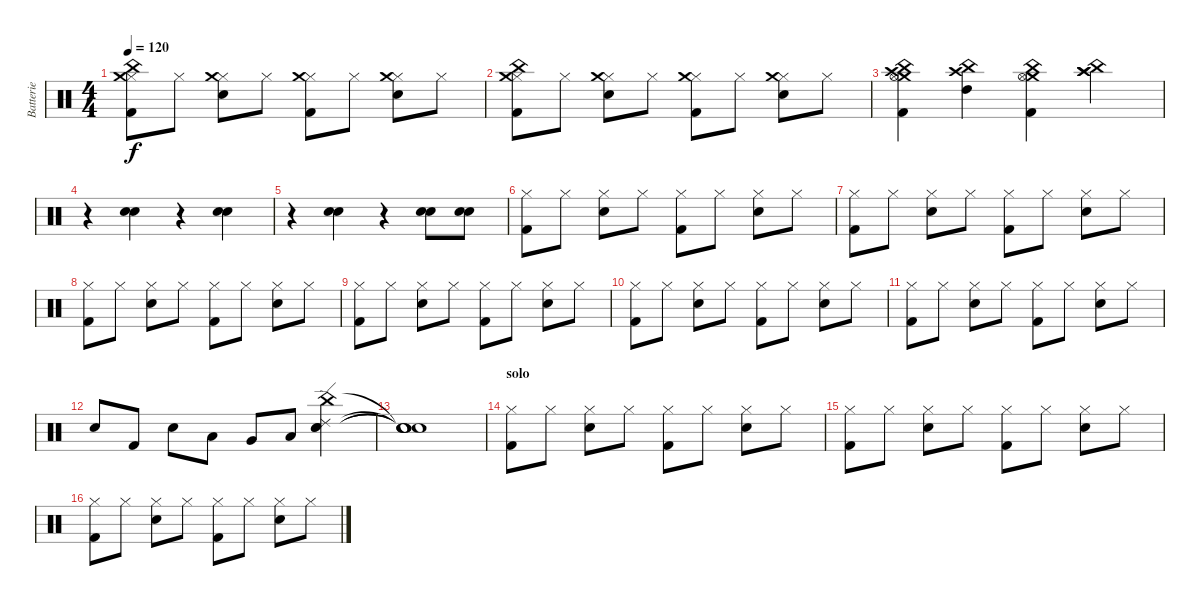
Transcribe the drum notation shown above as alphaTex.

\track ("Batterie" "Batterie") {instrument percussion}
\staff {score}
\articulation defaults
\ts (4 4)
\tempo 120
\clef neutral
\ks c
("China (hit)" "Hi-Hat (closed)" "Crash medium (hit)" "Kick (hit) 2").8{dy f} "Hi-Hat (closed)".8 ("Hi-Hat (closed)" "Crash medium (hit)" "Electric Snare (hit)").8 "Hi-Hat (closed)".8 ("Hi-Hat (closed)" "Crash medium (hit)" "Kick (hit) 2").8 "Hi-Hat (closed)".8 ("Hi-Hat (closed)" "Crash medium (hit)" "Electric Snare (hit)").8 "Hi-Hat (closed)".8 |
("China (hit)" "Hi-Hat (closed)" "Crash medium (hit)" "Kick (hit) 2").8 "Hi-Hat (closed)".8 ("Hi-Hat (closed)" "Crash medium (hit)" "Electric Snare (hit)").8 "Hi-Hat (closed)".8 ("Hi-Hat (closed)" "Crash medium (hit)" "Kick (hit) 2").8 "Hi-Hat (closed)".8 ("Hi-Hat (closed)" "Crash medium (hit)" "Electric Snare (hit)").8 "Hi-Hat (closed)".8 |
("China (hit)" "Crash medium (hit)" "Hi-Hat (open)" "Crash high (hit)" "Kick (hit) 2").4 ("China (hit)" "Crash high (hit)" "High Tom (hit)").4 ("China (hit)" "Crash medium (hit)" "Hi-Hat (open)" "Kick (hit) 2").4 ("China (hit)" "Crash high (hit)" "Crash high (hit)").4 |
r.4 ("Snare (hit) 2" "Electric Snare (hit)").4 r.4 ("Snare (hit) 2" "Electric Snare (hit)").4 |
r.4 ("Snare (hit) 2" "Electric Snare (hit)").4 r.4 ("Snare (hit) 2" "Electric Snare (hit)").8 ("Snare (hit) 2" "Electric Snare (hit)").8 |
("Hi-Hat (closed)" "Kick (hit) 2").8 "Hi-Hat (closed)".8 ("Hi-Hat (closed)" "Electric Snare (hit)").8 "Hi-Hat (closed)".8 ("Hi-Hat (closed)" "Kick (hit) 2").8 "Hi-Hat (closed)".8 ("Hi-Hat (closed)" "Electric Snare (hit)").8 "Hi-Hat (closed)".8 |
("Hi-Hat (closed)" "Kick (hit) 2").8 "Hi-Hat (closed)".8 ("Hi-Hat (closed)" "Electric Snare (hit)").8 "Hi-Hat (closed)".8 ("Hi-Hat (closed)" "Kick (hit) 2").8 "Hi-Hat (closed)".8 ("Hi-Hat (closed)" "Electric Snare (hit)").8 "Hi-Hat (closed)".8 |
("Hi-Hat (closed)" "Kick (hit) 2").8 "Hi-Hat (closed)".8 ("Hi-Hat (closed)" "Electric Snare (hit)").8 "Hi-Hat (closed)".8 ("Hi-Hat (closed)" "Kick (hit) 2").8 "Hi-Hat (closed)".8 ("Hi-Hat (closed)" "Electric Snare (hit)").8 "Hi-Hat (closed)".8 |
("Hi-Hat (closed)" "Kick (hit) 2").8 "Hi-Hat (closed)".8 ("Hi-Hat (closed)" "Electric Snare (hit)").8 "Hi-Hat (closed)".8 ("Hi-Hat (closed)" "Kick (hit) 2").8 "Hi-Hat (closed)".8 ("Hi-Hat (closed)" "Electric Snare (hit)").8 "Hi-Hat (closed)".8 |
("Hi-Hat (closed)" "Kick (hit) 2").8 "Hi-Hat (closed)".8 ("Hi-Hat (closed)" "Electric Snare (hit)").8 "Hi-Hat (closed)".8 ("Hi-Hat (closed)" "Kick (hit) 2").8 "Hi-Hat (closed)".8 ("Hi-Hat (closed)" "Electric Snare (hit)").8 "Hi-Hat (closed)".8 |
("Hi-Hat (closed)" "Kick (hit) 2").8 "Hi-Hat (closed)".8 ("Hi-Hat (closed)" "Electric Snare (hit)").8 "Hi-Hat (closed)".8 ("Hi-Hat (closed)" "Kick (hit) 2").8 "Hi-Hat (closed)".8 ("Hi-Hat (closed)" "Electric Snare (hit)").8 "Hi-Hat (closed)".8 |
"Electric Snare (hit)".8 "Kick (hit) 2".8 "Snare (hit) 2".8 "Low Tom (hit)".8 "Very Low Tom (hit)".8 "Low Floor Tom (hit)".8 ("Electric Snare (hit)" "Ride (edge) 2" "Snare (hit) 2" "China (hit)").4 |
("Snare (hit)"{t} "Snare (hit)"{t} "Snare (hit)"{t} "Snare (hit)"{t}).1 |
\section ("" "solo")
("Hi-Hat (closed)" "Kick (hit) 2").8 "Hi-Hat (closed)".8 ("Hi-Hat (closed)" "Electric Snare (hit)").8 "Hi-Hat (closed)".8 ("Hi-Hat (closed)" "Kick (hit) 2").8 "Hi-Hat (closed)".8 ("Hi-Hat (closed)" "Electric Snare (hit)").8 "Hi-Hat (closed)".8 |
("Hi-Hat (closed)" "Kick (hit) 2").8 "Hi-Hat (closed)".8 ("Hi-Hat (closed)" "Electric Snare (hit)").8 "Hi-Hat (closed)".8 ("Hi-Hat (closed)" "Kick (hit) 2").8 "Hi-Hat (closed)".8 ("Hi-Hat (closed)" "Electric Snare (hit)").8 "Hi-Hat (closed)".8 |
("Hi-Hat (closed)" "Kick (hit) 2").8 "Hi-Hat (closed)".8 ("Hi-Hat (closed)" "Electric Snare (hit)").8 "Hi-Hat (closed)".8 ("Hi-Hat (closed)" "Kick (hit) 2").8 "Hi-Hat (closed)".8 ("Hi-Hat (closed)" "Electric Snare (hit)").8 "Hi-Hat (closed)".8
